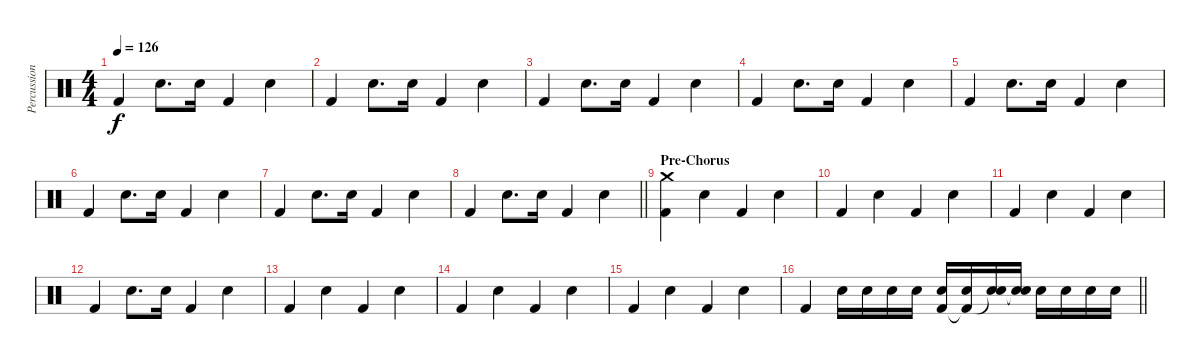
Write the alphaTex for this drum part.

\track ("Percussion" "Percussion") {instrument percussion}
\staff {score}
\articulation defaults
\ts (4 4)
\tempo 126
\clef neutral
\ks c "Kick (hit) 2".4{dy f} "Electric Snare (hit)".8{d} "Electric Snare (hit)".16 "Kick (hit) 2".4 "Electric Snare (hit)".4
|
"Kick (hit) 2".4 "Electric Snare (hit)".8{d} "Electric Snare (hit)".16 "Kick (hit) 2".4 "Electric Snare (hit)".4 |
"Kick (hit) 2".4 "Electric Snare (hit)".8{d} "Electric Snare (hit)".16 "Kick (hit) 2".4 "Electric Snare (hit)".4 |
"Kick (hit) 2".4 "Electric Snare (hit)".8{d} "Electric Snare (hit)".16 "Kick (hit) 2".4 "Electric Snare (hit)".4 |
"Kick (hit) 2".4 "Electric Snare (hit)".8{d} "Electric Snare (hit)".16 "Kick (hit) 2".4 "Electric Snare (hit)".4 |
"Kick (hit) 2".4 "Electric Snare (hit)".8{d} "Electric Snare (hit)".16 "Kick (hit) 2".4 "Electric Snare (hit)".4 |
"Kick (hit) 2".4 "Electric Snare (hit)".8{d} "Electric Snare (hit)".16 "Kick (hit) 2".4 "Electric Snare (hit)".4 |
\barLineRight lightlight "Kick (hit) 2".4 "Electric Snare (hit)".8{d} "Electric Snare (hit)".16 "Kick (hit) 2".4 "Electric Snare (hit)".4
|
\section ("" "Pre-Chorus")
("Crash medium (hit)" "Kick (hit) 2").4 "Electric Snare (hit)".4 "Kick (hit) 2".4 "Electric Snare (hit)".4 |
"Kick (hit) 2".4 "Electric Snare (hit)".4 "Kick (hit) 2".4 "Electric Snare (hit)".4 |
"Kick (hit) 2".4 "Electric Snare (hit)".4 "Kick (hit) 2".4 "Electric Snare (hit)".4 |
"Kick (hit) 2".4 "Electric Snare (hit)".8{d} "Electric Snare (hit)".16 "Kick (hit) 2".4 "Electric Snare (hit)".4 |
"Kick (hit) 2".4 "Electric Snare (hit)".4 "Kick (hit) 2".4 "Electric Snare (hit)".4 |
"Kick (hit) 2".4 "Electric Snare (hit)".4 "Kick (hit) 2".4 "Electric Snare (hit)".4 |
"Kick (hit) 2".4 "Electric Snare (hit)".4 "Kick (hit) 2".4 "Electric Snare (hit)".4 |
\barLineRight lightlight "Kick (hit) 2".4 "Electric Snare (hit)".16 "Electric Snare (hit)".16 "Electric Snare (hit)".16 "Electric Snare (hit)".16
("Electric Snare (hit)" "Kick (hit) 2").16 ("Electric Snare (hit)" "Kick (hit) 2"{t}).16 ("Electric Snare (hit)" "Snare (hit)"{t}).16 ("Electric Snare (hit)" "Snare (hit)"{t}).16 "Electric Snare (hit)".16 "Electric Snare (hit)".16 "Electric Snare (hit)".16 "Electric Snare (hit)".16
